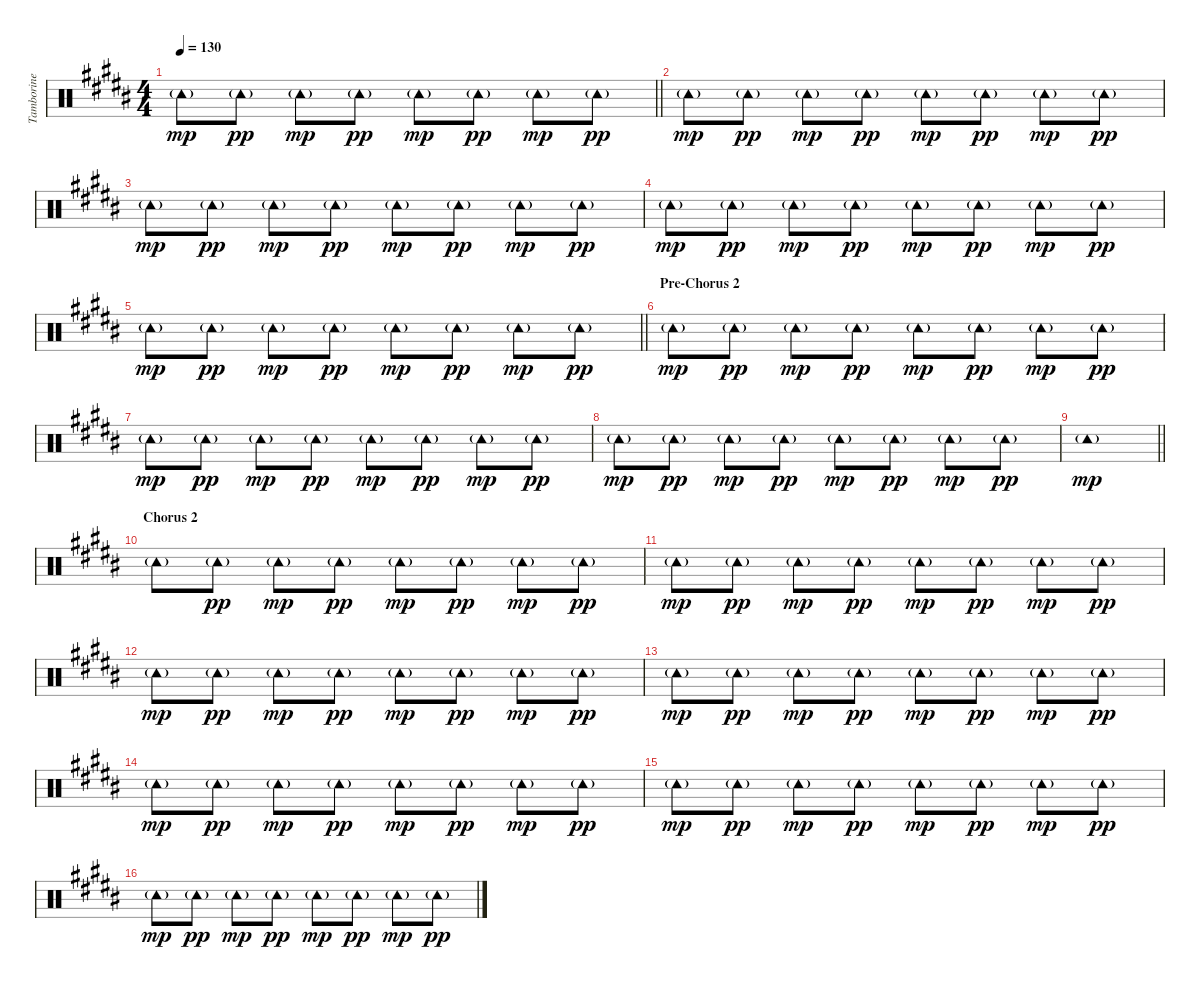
\track ("Tamborine" "Tamborine") {instrument percussion}
\staff {score}
\articulation defaults
\ts (4 4)
\tempo 130
\clef neutral
\barLineRight lightlight
\ks b "Tambourine (hit)"{g}.8{dy mp} "Tambourine (hit)"{g}.8{dy pp} "Tambourine (hit)"{g}.8{dy mp} "Tambourine (hit)"{g}.8{dy pp} "Tambourine (hit)"{g}.8{dy mp} "Tambourine (hit)"{g}.8{dy pp} "Tambourine (hit)"{g}.8{dy mp} "Tambourine (hit)"{g}.8{dy pp}
|
"Tambourine (hit)"{g}.8{dy mp} "Tambourine (hit)"{g}.8{dy pp} "Tambourine (hit)"{g}.8{dy mp} "Tambourine (hit)"{g}.8{dy pp} "Tambourine (hit)"{g}.8{dy mp} "Tambourine (hit)"{g}.8{dy pp} "Tambourine (hit)"{g}.8{dy mp} "Tambourine (hit)"{g}.8{dy pp} |
"Tambourine (hit)"{g}.8{dy mp} "Tambourine (hit)"{g}.8{dy pp} "Tambourine (hit)"{g}.8{dy mp} "Tambourine (hit)"{g}.8{dy pp} "Tambourine (hit)"{g}.8{dy mp} "Tambourine (hit)"{g}.8{dy pp} "Tambourine (hit)"{g}.8{dy mp} "Tambourine (hit)"{g}.8{dy pp} |
"Tambourine (hit)"{g}.8{dy mp} "Tambourine (hit)"{g}.8{dy pp} "Tambourine (hit)"{g}.8{dy mp} "Tambourine (hit)"{g}.8{dy pp} "Tambourine (hit)"{g}.8{dy mp} "Tambourine (hit)"{g}.8{dy pp} "Tambourine (hit)"{g}.8{dy mp} "Tambourine (hit)"{g}.8{dy pp} |
\barLineRight lightlight "Tambourine (hit)"{g}.8{dy mp} "Tambourine (hit)"{g}.8{dy pp} "Tambourine (hit)"{g}.8{dy mp} "Tambourine (hit)"{g}.8{dy pp} "Tambourine (hit)"{g}.8{dy mp} "Tambourine (hit)"{g}.8{dy pp} "Tambourine (hit)"{g}.8{dy mp} "Tambourine (hit)"{g}.8{dy pp}
|
\section ("" "Pre-Chorus 2")
"Tambourine (hit)"{g}.8{dy mp} "Tambourine (hit)"{g}.8{dy pp} "Tambourine (hit)"{g}.8{dy mp} "Tambourine (hit)"{g}.8{dy pp} "Tambourine (hit)"{g}.8{dy mp} "Tambourine (hit)"{g}.8{dy pp} "Tambourine (hit)"{g}.8{dy mp} "Tambourine (hit)"{g}.8{dy pp} |
"Tambourine (hit)"{g}.8{dy mp} "Tambourine (hit)"{g}.8{dy pp} "Tambourine (hit)"{g}.8{dy mp} "Tambourine (hit)"{g}.8{dy pp} "Tambourine (hit)"{g}.8{dy mp} "Tambourine (hit)"{g}.8{dy pp} "Tambourine (hit)"{g}.8{dy mp} "Tambourine (hit)"{g}.8{dy pp} |
"Tambourine (hit)"{g}.8{dy mp} "Tambourine (hit)"{g}.8{dy pp} "Tambourine (hit)"{g}.8{dy mp} "Tambourine (hit)"{g}.8{dy pp} "Tambourine (hit)"{g}.8{dy mp} "Tambourine (hit)"{g}.8{dy pp} "Tambourine (hit)"{g}.8{dy mp} "Tambourine (hit)"{g}.8{dy pp} |
\barLineRight lightlight "Tambourine (hit)"{g}.1{dy mp}
|
\section ("" "Chorus 2")
"Tambourine (hit)"{g}.8 "Tambourine (hit)"{g}.8{dy pp} "Tambourine (hit)"{g}.8{dy mp} "Tambourine (hit)"{g}.8{dy pp} "Tambourine (hit)"{g}.8{dy mp} "Tambourine (hit)"{g}.8{dy pp} "Tambourine (hit)"{g}.8{dy mp} "Tambourine (hit)"{g}.8{dy pp} |
"Tambourine (hit)"{g}.8{dy mp} "Tambourine (hit)"{g}.8{dy pp} "Tambourine (hit)"{g}.8{dy mp} "Tambourine (hit)"{g}.8{dy pp} "Tambourine (hit)"{g}.8{dy mp} "Tambourine (hit)"{g}.8{dy pp} "Tambourine (hit)"{g}.8{dy mp} "Tambourine (hit)"{g}.8{dy pp} |
"Tambourine (hit)"{g}.8{dy mp} "Tambourine (hit)"{g}.8{dy pp} "Tambourine (hit)"{g}.8{dy mp} "Tambourine (hit)"{g}.8{dy pp} "Tambourine (hit)"{g}.8{dy mp} "Tambourine (hit)"{g}.8{dy pp} "Tambourine (hit)"{g}.8{dy mp} "Tambourine (hit)"{g}.8{dy pp} |
"Tambourine (hit)"{g}.8{dy mp} "Tambourine (hit)"{g}.8{dy pp} "Tambourine (hit)"{g}.8{dy mp} "Tambourine (hit)"{g}.8{dy pp} "Tambourine (hit)"{g}.8{dy mp} "Tambourine (hit)"{g}.8{dy pp} "Tambourine (hit)"{g}.8{dy mp} "Tambourine (hit)"{g}.8{dy pp} |
"Tambourine (hit)"{g}.8{dy mp} "Tambourine (hit)"{g}.8{dy pp} "Tambourine (hit)"{g}.8{dy mp} "Tambourine (hit)"{g}.8{dy pp} "Tambourine (hit)"{g}.8{dy mp} "Tambourine (hit)"{g}.8{dy pp} "Tambourine (hit)"{g}.8{dy mp} "Tambourine (hit)"{g}.8{dy pp} |
"Tambourine (hit)"{g}.8{dy mp} "Tambourine (hit)"{g}.8{dy pp} "Tambourine (hit)"{g}.8{dy mp} "Tambourine (hit)"{g}.8{dy pp} "Tambourine (hit)"{g}.8{dy mp} "Tambourine (hit)"{g}.8{dy pp} "Tambourine (hit)"{g}.8{dy mp} "Tambourine (hit)"{g}.8{dy pp} |
"Tambourine (hit)"{g}.8{dy mp} "Tambourine (hit)"{g}.8{dy pp} "Tambourine (hit)"{g}.8{dy mp} "Tambourine (hit)"{g}.8{dy pp} "Tambourine (hit)"{g}.8{dy mp} "Tambourine (hit)"{g}.8{dy pp} "Tambourine (hit)"{g}.8{dy mp} "Tambourine (hit)"{g}.8{dy pp}
